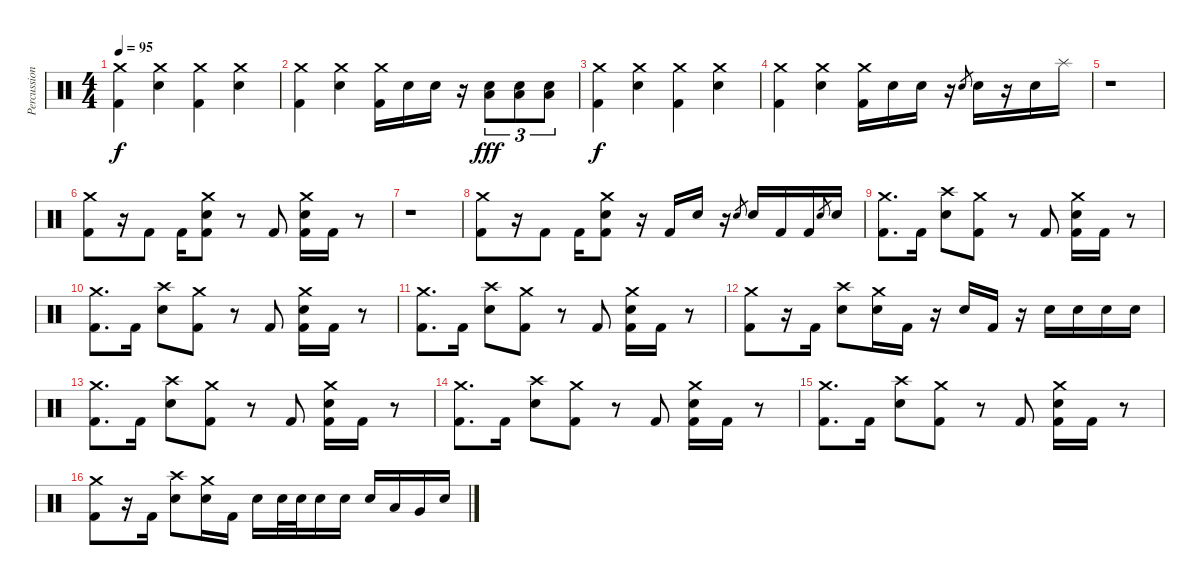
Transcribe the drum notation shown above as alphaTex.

\track ("Percussion" "Percussion") {instrument percussion}
\staff {score}
\articulation defaults
\ts (4 4)
\tempo 95
\clef neutral
\ks c
("Crash medium (hit)" "Kick (hit) 2").4{dy f} ("Crash medium (hit)" "Electric Snare (hit)").4 ("Crash medium (hit)" "Kick (hit) 2").4 ("Crash medium (hit)" "Electric Snare (hit)").4 |
("Crash medium (hit)" "Kick (hit) 2").4 ("Crash medium (hit)" "Electric Snare (hit)").4 ("Crash medium (hit)" "Kick (hit) 2").16 "Electric Snare (hit)".16 "Electric Snare (hit)".16 r.16 ("Low Floor Tom (hit)" "Electric Snare (hit)").8{tu (3 2) dy fff} ("Low Floor Tom (hit)" "Electric Snare (hit)").8{tu (3 2)} ("Low Floor Tom (hit)" "Electric Snare (hit)").8{tu (3 2)} |
("Crash medium (hit)" "Kick (hit) 2").4{dy f} ("Crash medium (hit)" "Electric Snare (hit)").4 ("Crash medium (hit)" "Kick (hit) 2").4 ("Crash medium (hit)" "Electric Snare (hit)").4 |
("Crash medium (hit)" "Kick (hit) 2").4 ("Crash medium (hit)" "Electric Snare (hit)").4 ("Crash medium (hit)" "Kick (hit) 2").16 "Electric Snare (hit)".16 "Electric Snare (hit)".16 r.16 "Electric Snare (hit)".8{gr} "Electric Snare (hit)".16 r.16 "Electric Snare (hit)".16 "Splash (hit)".16 |
r.1 |
("Crash medium (hit)" "Kick (hit) 2").8 r.16 "Kick (hit) 2".8 "Kick (hit) 2".16 ("Crash medium (hit)" "Electric Snare (hit)" "Kick (hit) 2").8 r.8 "Kick (hit) 2".8 ("Crash medium (hit)" "Electric Snare (hit)" "Kick (hit) 2").16 "Kick (hit) 2".16 r.8 |
r.1 |
("Crash medium (hit)" "Kick (hit) 2").8 r.16 "Kick (hit) 2".8 "Kick (hit) 2".16 ("Crash medium (hit)" "Electric Snare (hit)" "Kick (hit) 2").8 r.16 "Kick (hit) 2".16 "Electric Snare (hit)".16 r.16 "Electric Snare (hit)".8{gr} "Electric Snare (hit)".16 "Kick (hit) 2".16 "Kick (hit) 2".16 "Electric Snare (hit)".8{gr} "Electric Snare (hit)".16 |
("Crash medium (hit)" "Kick (hit) 2").8{d} "Kick (hit) 2".16 ("Crash high (hit)" "Electric Snare (hit)").8 ("Crash medium (hit)" "Kick (hit) 2").8 r.8 "Kick (hit) 2".8 ("Crash medium (hit)" "Electric Snare (hit)" "Kick (hit) 2").16 "Kick (hit) 2".16 r.8 |
("Crash medium (hit)" "Kick (hit) 2").8{d} "Kick (hit) 2".16 ("Crash high (hit)" "Electric Snare (hit)").8 ("Crash medium (hit)" "Kick (hit) 2").8 r.8 "Kick (hit) 2".8 ("Crash medium (hit)" "Electric Snare (hit)" "Kick (hit) 2").16 "Kick (hit) 2".16 r.8 |
("Crash medium (hit)" "Kick (hit) 2").8{d} "Kick (hit) 2".16 ("Crash high (hit)" "Electric Snare (hit)").8 ("Crash medium (hit)" "Kick (hit) 2").8 r.8 "Kick (hit) 2".8 ("Crash medium (hit)" "Electric Snare (hit)" "Kick (hit) 2").16 "Kick (hit) 2".16 r.8 |
("Crash medium (hit)" "Kick (hit) 2").8 r.16 "Kick (hit) 2".16 ("Crash high (hit)" "Electric Snare (hit)").8 ("Crash medium (hit)" "Electric Snare (hit)").16 "Kick (hit) 2".16 r.16 "Electric Snare (hit)".16 "Kick (hit) 2".16 r.16 "Electric Snare (hit)".16 "Electric Snare (hit)".16 "Electric Snare (hit)".16 "Electric Snare (hit)".16 |
("Crash medium (hit)" "Kick (hit) 2").8{d} "Kick (hit) 2".16 ("Crash high (hit)" "Electric Snare (hit)").8 ("Crash medium (hit)" "Kick (hit) 2").8 r.8 "Kick (hit) 2".8 ("Crash medium (hit)" "Electric Snare (hit)" "Kick (hit) 2").16 "Kick (hit) 2".16 r.8 |
("Crash medium (hit)" "Kick (hit) 2").8{d} "Kick (hit) 2".16 ("Crash high (hit)" "Electric Snare (hit)").8 ("Crash medium (hit)" "Kick (hit) 2").8 r.8 "Kick (hit) 2".8 ("Crash medium (hit)" "Electric Snare (hit)" "Kick (hit) 2").16 "Kick (hit) 2".16 r.8 |
("Crash medium (hit)" "Kick (hit) 2").8{d} "Kick (hit) 2".16 ("Crash high (hit)" "Electric Snare (hit)").8 ("Crash medium (hit)" "Kick (hit) 2").8 r.8 "Kick (hit) 2".8 ("Crash medium (hit)" "Electric Snare (hit)" "Kick (hit) 2").16 "Kick (hit) 2".16 r.8 |
("Crash medium (hit)" "Kick (hit) 2").8 r.16 "Kick (hit) 2".16 ("Crash high (hit)" "Electric Snare (hit)").8 ("Crash medium (hit)" "Electric Snare (hit)").16 "Kick (hit) 2".16 "Electric Snare (hit)".16 "Electric Snare (hit)".32 "Electric Snare (hit)".32 "Electric Snare (hit)".16 "Electric Snare (hit)".16 "Electric Snare (hit)".16 "Low Tom (hit)".16 "Very Low Tom (hit)".16 "Electric Snare (hit)".16
